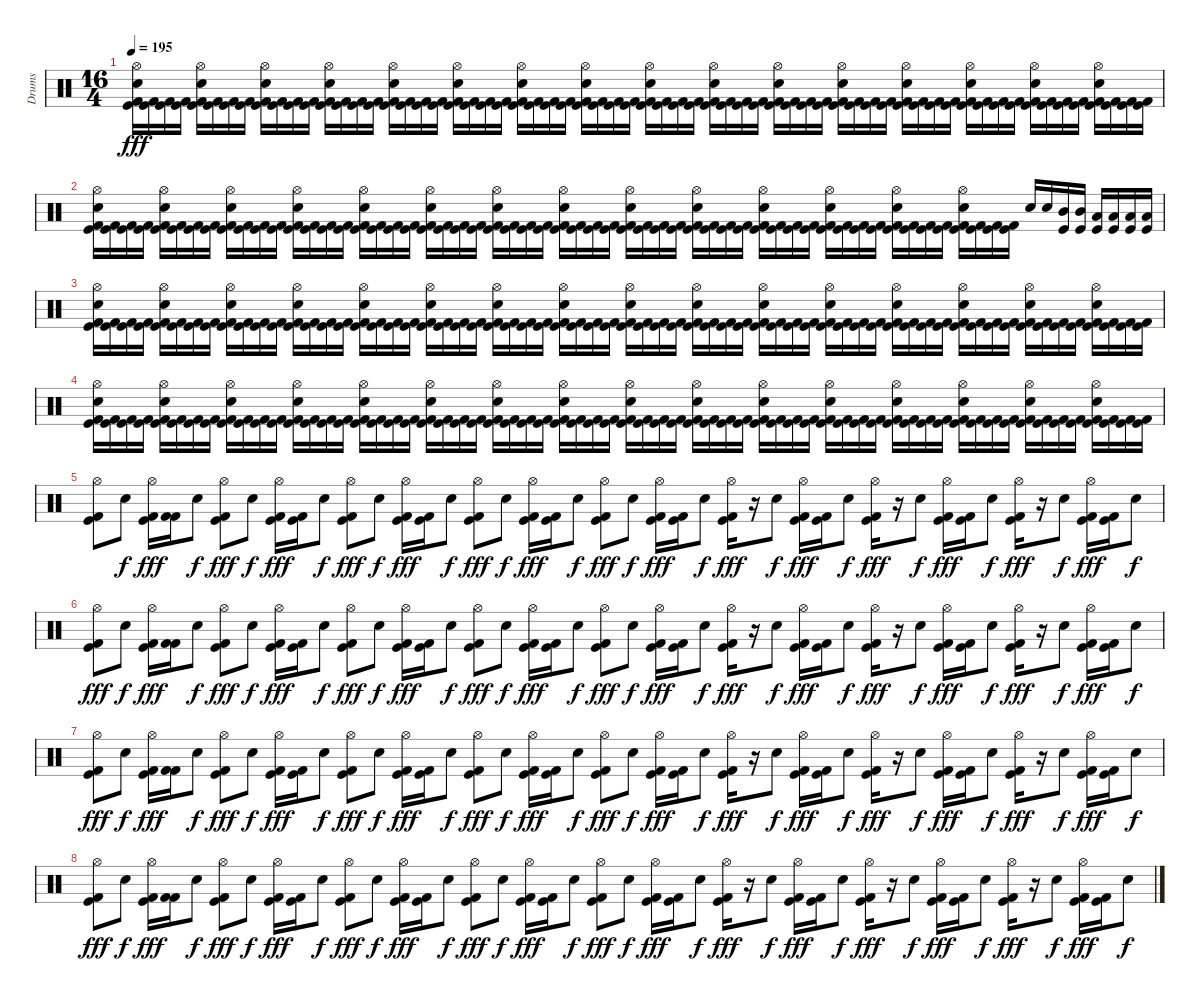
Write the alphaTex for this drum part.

\track ("Drums" "Drums") {instrument percussion}
\staff {score}
\articulation defaults
\ts (16 4)
\tempo 195
\clef neutral
\ks c
("Hi-Hat (open)" "Electric Snare (hit)" "Kick (hit)" "Kick (hit) 2").16{dy fff} ("Kick (hit)" "Kick (hit) 2").16 ("Kick (hit)" "Kick (hit) 2").16 ("Kick (hit)" "Kick (hit) 2").16 ("Hi-Hat (open)" "Electric Snare (hit)" "Kick (hit)" "Kick (hit) 2").16 ("Kick (hit)" "Kick (hit) 2").16 ("Kick (hit)" "Kick (hit) 2").16 ("Kick (hit)" "Kick (hit) 2").16 ("Hi-Hat (open)" "Electric Snare (hit)" "Kick (hit)" "Kick (hit) 2").16 ("Kick (hit)" "Kick (hit) 2").16 ("Kick (hit)" "Kick (hit) 2").16 ("Kick (hit)" "Kick (hit) 2").16 ("Hi-Hat (open)" "Electric Snare (hit)" "Kick (hit)" "Kick (hit) 2").16 ("Kick (hit)" "Kick (hit) 2").16 ("Kick (hit)" "Kick (hit) 2").16 ("Kick (hit)" "Kick (hit) 2").16 ("Hi-Hat (open)" "Electric Snare (hit)" "Kick (hit) 2" "Kick (hit)").16 ("Kick (hit) 2" "Kick (hit)").16 ("Kick (hit) 2" "Kick (hit)").16 ("Kick (hit) 2" "Kick (hit)").16 ("Hi-Hat (open)" "Electric Snare (hit)" "Kick (hit) 2" "Kick (hit)").16 ("Kick (hit) 2" "Kick (hit)").16 ("Kick (hit) 2" "Kick (hit)").16 ("Kick (hit) 2" "Kick (hit)").16 ("Hi-Hat (open)" "Electric Snare (hit)" "Kick (hit) 2" "Kick (hit)").16 ("Kick (hit) 2" "Kick (hit)").16 ("Kick (hit) 2" "Kick (hit)").16 ("Kick (hit) 2" "Kick (hit)").16 ("Hi-Hat (open)" "Electric Snare (hit)" "Kick (hit) 2" "Kick (hit)").16 ("Kick (hit) 2" "Kick (hit)").16 ("Kick (hit) 2" "Kick (hit)").16 ("Kick (hit) 2" "Kick (hit)").16 ("Electric Snare (hit)" "Hi-Hat (open)" "Kick (hit) 2" "Kick (hit)").16 ("Kick (hit) 2" "Kick (hit)").16 ("Kick (hit) 2" "Kick (hit)").16 ("Kick (hit) 2" "Kick (hit)").16 ("Hi-Hat (open)" "Electric Snare (hit)" "Kick (hit) 2" "Kick (hit)").16 ("Kick (hit) 2" "Kick (hit)").16 ("Kick (hit) 2" "Kick (hit)").16 ("Kick (hit) 2" "Kick (hit)").16 ("Hi-Hat (open)" "Electric Snare (hit)" "Kick (hit) 2" "Kick (hit)").16 ("Kick (hit) 2" "Kick (hit)").16 ("Kick (hit) 2" "Kick (hit)").16 ("Kick (hit) 2" "Kick (hit)").16 ("Hi-Hat (open)" "Electric Snare (hit)" "Kick (hit) 2" "Kick (hit)").16 ("Kick (hit) 2" "Kick (hit)").16 ("Kick (hit) 2" "Kick (hit)").16 ("Kick (hit) 2" "Kick (hit)").16 ("Hi-Hat (open)" "Electric Snare (hit)" "Kick (hit) 2" "Kick (hit)").16 ("Kick (hit) 2" "Kick (hit)").16 ("Kick (hit) 2" "Kick (hit)").16 ("Kick (hit) 2" "Kick (hit)").16 ("Hi-Hat (open)" "Electric Snare (hit)" "Kick (hit) 2" "Kick (hit)").16 ("Kick (hit) 2" "Kick (hit)").16 ("Kick (hit) 2" "Kick (hit)").16 ("Kick (hit) 2" "Kick (hit)").16 ("Hi-Hat (open)" "Electric Snare (hit)" "Kick (hit) 2" "Kick (hit)").16 ("Kick (hit) 2" "Kick (hit)").16 ("Kick (hit) 2" "Kick (hit)").16 ("Kick (hit) 2" "Kick (hit)").16 ("Hi-Hat (open)" "Electric Snare (hit)" "Kick (hit) 2" "Kick (hit)").16 ("Kick (hit) 2" "Kick (hit)").16 ("Kick (hit) 2" "Kick (hit)").16 ("Kick (hit) 2" "Kick (hit)").16 |
("Hi-Hat (open)" "Electric Snare (hit)" "Kick (hit)" "Kick (hit) 2").16 ("Kick (hit)" "Kick (hit) 2").16 ("Kick (hit)" "Kick (hit) 2").16 ("Kick (hit)" "Kick (hit) 2").16 ("Hi-Hat (open)" "Electric Snare (hit)" "Kick (hit)" "Kick (hit) 2").16 ("Kick (hit)" "Kick (hit) 2").16 ("Kick (hit)" "Kick (hit) 2").16 ("Kick (hit)" "Kick (hit) 2").16 ("Hi-Hat (open)" "Electric Snare (hit)" "Kick (hit)" "Kick (hit) 2").16 ("Kick (hit)" "Kick (hit) 2").16 ("Kick (hit)" "Kick (hit) 2").16 ("Kick (hit)" "Kick (hit) 2").16 ("Hi-Hat (open)" "Electric Snare (hit)" "Kick (hit)" "Kick (hit) 2").16 ("Kick (hit)" "Kick (hit) 2").16 ("Kick (hit)" "Kick (hit) 2").16 ("Kick (hit)" "Kick (hit) 2").16 ("Hi-Hat (open)" "Electric Snare (hit)" "Kick (hit) 2" "Kick (hit)").16 ("Kick (hit) 2" "Kick (hit)").16 ("Kick (hit) 2" "Kick (hit)").16 ("Kick (hit) 2" "Kick (hit)").16 ("Hi-Hat (open)" "Electric Snare (hit)" "Kick (hit) 2" "Kick (hit)").16 ("Kick (hit) 2" "Kick (hit)").16 ("Kick (hit) 2" "Kick (hit)").16 ("Kick (hit) 2" "Kick (hit)").16 ("Hi-Hat (open)" "Electric Snare (hit)" "Kick (hit) 2" "Kick (hit)").16 ("Kick (hit) 2" "Kick (hit)").16 ("Kick (hit) 2" "Kick (hit)").16 ("Kick (hit) 2" "Kick (hit)").16 ("Hi-Hat (open)" "Electric Snare (hit)" "Kick (hit) 2" "Kick (hit)").16 ("Kick (hit) 2" "Kick (hit)").16 ("Kick (hit) 2" "Kick (hit)").16 ("Kick (hit) 2" "Kick (hit)").16 ("Electric Snare (hit)" "Hi-Hat (open)" "Kick (hit) 2" "Kick (hit)").16 ("Kick (hit) 2" "Kick (hit)").16 ("Kick (hit) 2" "Kick (hit)").16 ("Kick (hit) 2" "Kick (hit)").16 ("Hi-Hat (open)" "Electric Snare (hit)" "Kick (hit) 2" "Kick (hit)").16 ("Kick (hit) 2" "Kick (hit)").16 ("Kick (hit) 2" "Kick (hit)").16 ("Kick (hit) 2" "Kick (hit)").16 ("Hi-Hat (open)" "Electric Snare (hit)" "Kick (hit) 2" "Kick (hit)").16 ("Kick (hit) 2" "Kick (hit)").16 ("Kick (hit) 2" "Kick (hit)").16 ("Kick (hit) 2" "Kick (hit)").16 ("Hi-Hat (open)" "Electric Snare (hit)" "Kick (hit) 2" "Kick (hit)").16 ("Kick (hit) 2" "Kick (hit)").16 ("Kick (hit) 2" "Kick (hit)").16 ("Kick (hit) 2" "Kick (hit)").16 ("Hi-Hat (open)" "Electric Snare (hit)" "Kick (hit) 2" "Kick (hit)").16 ("Kick (hit) 2" "Kick (hit)").16 ("Kick (hit) 2" "Kick (hit)").16 ("Kick (hit) 2" "Kick (hit)").16 ("Hi-Hat (open)" "Electric Snare (hit)" "Kick (hit) 2" "Kick (hit)").16 ("Kick (hit) 2" "Kick (hit)").16 ("Kick (hit) 2" "Kick (hit)").16 ("Kick (hit) 2" "Kick (hit)").16 "Electric Snare (hit)".16 "Electric Snare (hit)".16 ("Kick (hit)" "Mid Tom (hit)").16 ("Kick (hit)" "Mid Tom (hit)").16 ("Kick (hit)" "Low Tom (hit)").16 ("Kick (hit)" "Low Tom (hit)").16 ("Kick (hit)" "Low Floor Tom (hit)").16 ("Kick (hit)" "Low Floor Tom (hit)").16 |
("Hi-Hat (open)" "Electric Snare (hit)" "Kick (hit)" "Kick (hit) 2").16 ("Kick (hit)" "Kick (hit) 2").16 ("Kick (hit)" "Kick (hit) 2").16 ("Kick (hit)" "Kick (hit) 2").16 ("Hi-Hat (open)" "Electric Snare (hit)" "Kick (hit)" "Kick (hit) 2").16 ("Kick (hit)" "Kick (hit) 2").16 ("Kick (hit)" "Kick (hit) 2").16 ("Kick (hit)" "Kick (hit) 2").16 ("Hi-Hat (open)" "Electric Snare (hit)" "Kick (hit)" "Kick (hit) 2").16 ("Kick (hit)" "Kick (hit) 2").16 ("Kick (hit)" "Kick (hit) 2").16 ("Kick (hit)" "Kick (hit) 2").16 ("Hi-Hat (open)" "Electric Snare (hit)" "Kick (hit)" "Kick (hit) 2").16 ("Kick (hit)" "Kick (hit) 2").16 ("Kick (hit)" "Kick (hit) 2").16 ("Kick (hit)" "Kick (hit) 2").16 ("Hi-Hat (open)" "Electric Snare (hit)" "Kick (hit) 2" "Kick (hit)").16 ("Kick (hit) 2" "Kick (hit)").16 ("Kick (hit) 2" "Kick (hit)").16 ("Kick (hit) 2" "Kick (hit)").16 ("Hi-Hat (open)" "Electric Snare (hit)" "Kick (hit) 2" "Kick (hit)").16 ("Kick (hit) 2" "Kick (hit)").16 ("Kick (hit) 2" "Kick (hit)").16 ("Kick (hit) 2" "Kick (hit)").16 ("Hi-Hat (open)" "Electric Snare (hit)" "Kick (hit) 2" "Kick (hit)").16 ("Kick (hit) 2" "Kick (hit)").16 ("Kick (hit) 2" "Kick (hit)").16 ("Kick (hit) 2" "Kick (hit)").16 ("Hi-Hat (open)" "Electric Snare (hit)" "Kick (hit) 2" "Kick (hit)").16 ("Kick (hit) 2" "Kick (hit)").16 ("Kick (hit) 2" "Kick (hit)").16 ("Kick (hit) 2" "Kick (hit)").16 ("Electric Snare (hit)" "Hi-Hat (open)" "Kick (hit) 2" "Kick (hit)").16 ("Kick (hit) 2" "Kick (hit)").16 ("Kick (hit) 2" "Kick (hit)").16 ("Kick (hit) 2" "Kick (hit)").16 ("Hi-Hat (open)" "Electric Snare (hit)" "Kick (hit) 2" "Kick (hit)").16 ("Kick (hit) 2" "Kick (hit)").16 ("Kick (hit) 2" "Kick (hit)").16 ("Kick (hit) 2" "Kick (hit)").16 ("Hi-Hat (open)" "Electric Snare (hit)" "Kick (hit) 2" "Kick (hit)").16 ("Kick (hit) 2" "Kick (hit)").16 ("Kick (hit) 2" "Kick (hit)").16 ("Kick (hit) 2" "Kick (hit)").16 ("Hi-Hat (open)" "Electric Snare (hit)" "Kick (hit) 2" "Kick (hit)").16 ("Kick (hit) 2" "Kick (hit)").16 ("Kick (hit) 2" "Kick (hit)").16 ("Kick (hit) 2" "Kick (hit)").16 ("Hi-Hat (open)" "Electric Snare (hit)" "Kick (hit) 2" "Kick (hit)").16 ("Kick (hit) 2" "Kick (hit)").16 ("Kick (hit) 2" "Kick (hit)").16 ("Kick (hit) 2" "Kick (hit)").16 ("Hi-Hat (open)" "Electric Snare (hit)" "Kick (hit) 2" "Kick (hit)").16 ("Kick (hit) 2" "Kick (hit)").16 ("Kick (hit) 2" "Kick (hit)").16 ("Kick (hit) 2" "Kick (hit)").16 ("Hi-Hat (open)" "Electric Snare (hit)" "Kick (hit) 2" "Kick (hit)").16 ("Kick (hit) 2" "Kick (hit)").16 ("Kick (hit) 2" "Kick (hit)").16 ("Kick (hit) 2" "Kick (hit)").16 ("Hi-Hat (open)" "Electric Snare (hit)" "Kick (hit) 2" "Kick (hit)").16 ("Kick (hit) 2" "Kick (hit)").16 ("Kick (hit) 2" "Kick (hit)").16 ("Kick (hit) 2" "Kick (hit)").16 |
("Hi-Hat (open)" "Electric Snare (hit)" "Kick (hit)" "Kick (hit) 2").16 ("Kick (hit)" "Kick (hit) 2").16 ("Kick (hit)" "Kick (hit) 2").16 ("Kick (hit)" "Kick (hit) 2").16 ("Hi-Hat (open)" "Electric Snare (hit)" "Kick (hit)" "Kick (hit) 2").16 ("Kick (hit)" "Kick (hit) 2").16 ("Kick (hit)" "Kick (hit) 2").16 ("Kick (hit)" "Kick (hit) 2").16 ("Hi-Hat (open)" "Electric Snare (hit)" "Kick (hit)" "Kick (hit) 2").16 ("Kick (hit)" "Kick (hit) 2").16 ("Kick (hit)" "Kick (hit) 2").16 ("Kick (hit)" "Kick (hit) 2").16 ("Hi-Hat (open)" "Electric Snare (hit)" "Kick (hit)" "Kick (hit) 2").16 ("Kick (hit)" "Kick (hit) 2").16 ("Kick (hit)" "Kick (hit) 2").16 ("Kick (hit)" "Kick (hit) 2").16 ("Hi-Hat (open)" "Electric Snare (hit)" "Kick (hit) 2" "Kick (hit)").16 ("Kick (hit) 2" "Kick (hit)").16 ("Kick (hit) 2" "Kick (hit)").16 ("Kick (hit) 2" "Kick (hit)").16 ("Hi-Hat (open)" "Electric Snare (hit)" "Kick (hit) 2" "Kick (hit)").16 ("Kick (hit) 2" "Kick (hit)").16 ("Kick (hit) 2" "Kick (hit)").16 ("Kick (hit) 2" "Kick (hit)").16 ("Hi-Hat (open)" "Electric Snare (hit)" "Kick (hit) 2" "Kick (hit)").16 ("Kick (hit) 2" "Kick (hit)").16 ("Kick (hit) 2" "Kick (hit)").16 ("Kick (hit) 2" "Kick (hit)").16 ("Hi-Hat (open)" "Electric Snare (hit)" "Kick (hit) 2" "Kick (hit)").16 ("Kick (hit) 2" "Kick (hit)").16 ("Kick (hit) 2" "Kick (hit)").16 ("Kick (hit) 2" "Kick (hit)").16 ("Electric Snare (hit)" "Hi-Hat (open)" "Kick (hit) 2" "Kick (hit)").16 ("Kick (hit) 2" "Kick (hit)").16 ("Kick (hit) 2" "Kick (hit)").16 ("Kick (hit) 2" "Kick (hit)").16 ("Hi-Hat (open)" "Electric Snare (hit)" "Kick (hit) 2" "Kick (hit)").16 ("Kick (hit) 2" "Kick (hit)").16 ("Kick (hit) 2" "Kick (hit)").16 ("Kick (hit) 2" "Kick (hit)").16 ("Hi-Hat (open)" "Electric Snare (hit)" "Kick (hit) 2" "Kick (hit)").16 ("Kick (hit) 2" "Kick (hit)").16 ("Kick (hit) 2" "Kick (hit)").16 ("Kick (hit) 2" "Kick (hit)").16 ("Hi-Hat (open)" "Electric Snare (hit)" "Kick (hit) 2" "Kick (hit)").16 ("Kick (hit) 2" "Kick (hit)").16 ("Kick (hit) 2" "Kick (hit)").16 ("Kick (hit) 2" "Kick (hit)").16 ("Hi-Hat (open)" "Electric Snare (hit)" "Kick (hit) 2" "Kick (hit)").16 ("Kick (hit) 2" "Kick (hit)").16 ("Kick (hit) 2" "Kick (hit)").16 ("Kick (hit) 2" "Kick (hit)").16 ("Hi-Hat (open)" "Electric Snare (hit)" "Kick (hit) 2" "Kick (hit)").16 ("Kick (hit) 2" "Kick (hit)").16 ("Kick (hit) 2" "Kick (hit)").16 ("Kick (hit) 2" "Kick (hit)").16 ("Hi-Hat (open)" "Electric Snare (hit)" "Kick (hit) 2" "Kick (hit)").16 ("Kick (hit) 2" "Kick (hit)").16 ("Kick (hit) 2" "Kick (hit)").16 ("Kick (hit) 2" "Kick (hit)").16 ("Hi-Hat (open)" "Electric Snare (hit)" "Kick (hit) 2" "Kick (hit)").16 ("Kick (hit) 2" "Kick (hit)").16 ("Kick (hit) 2" "Kick (hit)").16 ("Kick (hit) 2" "Kick (hit)").16 |
("Hi-Hat (open)" "Kick (hit)" "Kick (hit) 2").8 "Electric Snare (hit)".8{dy f} ("Hi-Hat (open)" "Kick (hit)" "Kick (hit) 2").16{dy fff} ("Kick (hit) 2" "Kick (hit) 2").16 "Electric Snare (hit)".8{dy f} ("Hi-Hat (open)" "Kick (hit)" "Kick (hit) 2").8{dy fff} "Electric Snare (hit)".8{dy f} ("Hi-Hat (open)" "Kick (hit)" "Kick (hit) 2").16{dy fff} ("Kick (hit) 2" "Kick (hit)").16 "Electric Snare (hit)".8{dy f} ("Hi-Hat (open)" "Kick (hit)" "Kick (hit) 2").8{dy fff} "Electric Snare (hit)".8{dy f} ("Hi-Hat (open)" "Kick (hit)" "Kick (hit) 2").16{dy fff} ("Kick (hit) 2" "Kick (hit)").16 "Electric Snare (hit)".8{dy f} ("Hi-Hat (open)" "Kick (hit)" "Kick (hit) 2").8{dy fff} "Electric Snare (hit)".8{dy f} ("Hi-Hat (open)" "Kick (hit)" "Kick (hit) 2").16{dy fff} ("Kick (hit) 2" "Kick (hit)").16 "Electric Snare (hit)".8{dy f} ("Hi-Hat (open)" "Kick (hit)" "Kick (hit) 2").8{dy fff} "Electric Snare (hit)".8{dy f} ("Hi-Hat (open)" "Kick (hit)" "Kick (hit) 2").16{dy fff} ("Kick (hit) 2" "Kick (hit)").16 "Electric Snare (hit)".8{dy f} ("Hi-Hat (open)" "Kick (hit)" "Kick (hit) 2").16{dy fff} r.16 "Electric Snare (hit)".8{dy f} ("Hi-Hat (open)" "Kick (hit)" "Kick (hit) 2").16{dy fff} ("Kick (hit) 2" "Kick (hit)").16 "Electric Snare (hit)".8{dy f} ("Hi-Hat (open)" "Kick (hit)" "Kick (hit) 2").16{dy fff} r.16 "Electric Snare (hit)".8{dy f} ("Hi-Hat (open)" "Kick (hit) 2" "Kick (hit)").16{dy fff} ("Kick (hit) 2" "Kick (hit)").16 "Electric Snare (hit)".8{dy f} ("Hi-Hat (open)" "Kick (hit)" "Kick (hit) 2").16{dy fff} r.16 "Electric Snare (hit)".8{dy f} ("Hi-Hat (open)" "Kick (hit) 2" "Kick (hit)").16{dy fff} ("Kick (hit) 2" "Kick (hit)").16 "Electric Snare (hit)".8{dy f} |
("Hi-Hat (open)" "Kick (hit)" "Kick (hit) 2").8{dy fff} "Electric Snare (hit)".8{dy f} ("Hi-Hat (open)" "Kick (hit)" "Kick (hit) 2").16{dy fff} ("Kick (hit) 2" "Kick (hit) 2").16 "Electric Snare (hit)".8{dy f} ("Hi-Hat (open)" "Kick (hit)" "Kick (hit) 2").8{dy fff} "Electric Snare (hit)".8{dy f} ("Hi-Hat (open)" "Kick (hit)" "Kick (hit) 2").16{dy fff} ("Kick (hit) 2" "Kick (hit)").16 "Electric Snare (hit)".8{dy f} ("Hi-Hat (open)" "Kick (hit)" "Kick (hit) 2").8{dy fff} "Electric Snare (hit)".8{dy f} ("Hi-Hat (open)" "Kick (hit)" "Kick (hit) 2").16{dy fff} ("Kick (hit) 2" "Kick (hit)").16 "Electric Snare (hit)".8{dy f} ("Hi-Hat (open)" "Kick (hit)" "Kick (hit) 2").8{dy fff} "Electric Snare (hit)".8{dy f} ("Hi-Hat (open)" "Kick (hit)" "Kick (hit) 2").16{dy fff} ("Kick (hit) 2" "Kick (hit)").16 "Electric Snare (hit)".8{dy f} ("Hi-Hat (open)" "Kick (hit)" "Kick (hit) 2").8{dy fff} "Electric Snare (hit)".8{dy f} ("Hi-Hat (open)" "Kick (hit)" "Kick (hit) 2").16{dy fff} ("Kick (hit) 2" "Kick (hit)").16 "Electric Snare (hit)".8{dy f} ("Hi-Hat (open)" "Kick (hit)" "Kick (hit) 2").16{dy fff} r.16 "Electric Snare (hit)".8{dy f} ("Hi-Hat (open)" "Kick (hit)" "Kick (hit) 2").16{dy fff} ("Kick (hit) 2" "Kick (hit)").16 "Electric Snare (hit)".8{dy f} ("Hi-Hat (open)" "Kick (hit)" "Kick (hit) 2").16{dy fff} r.16 "Electric Snare (hit)".8{dy f} ("Hi-Hat (open)" "Kick (hit) 2" "Kick (hit)").16{dy fff} ("Kick (hit) 2" "Kick (hit)").16 "Electric Snare (hit)".8{dy f} ("Hi-Hat (open)" "Kick (hit)" "Kick (hit) 2").16{dy fff} r.16 "Electric Snare (hit)".8{dy f} ("Hi-Hat (open)" "Kick (hit) 2" "Kick (hit)").16{dy fff} ("Kick (hit) 2" "Kick (hit)").16 "Electric Snare (hit)".8{dy f} |
("Hi-Hat (open)" "Kick (hit)" "Kick (hit) 2").8{dy fff} "Electric Snare (hit)".8{dy f} ("Hi-Hat (open)" "Kick (hit)" "Kick (hit) 2").16{dy fff} ("Kick (hit) 2" "Kick (hit) 2").16 "Electric Snare (hit)".8{dy f} ("Hi-Hat (open)" "Kick (hit)" "Kick (hit) 2").8{dy fff} "Electric Snare (hit)".8{dy f} ("Hi-Hat (open)" "Kick (hit)" "Kick (hit) 2").16{dy fff} ("Kick (hit) 2" "Kick (hit)").16 "Electric Snare (hit)".8{dy f} ("Hi-Hat (open)" "Kick (hit)" "Kick (hit) 2").8{dy fff} "Electric Snare (hit)".8{dy f} ("Hi-Hat (open)" "Kick (hit)" "Kick (hit) 2").16{dy fff} ("Kick (hit) 2" "Kick (hit)").16 "Electric Snare (hit)".8{dy f} ("Hi-Hat (open)" "Kick (hit)" "Kick (hit) 2").8{dy fff} "Electric Snare (hit)".8{dy f} ("Hi-Hat (open)" "Kick (hit)" "Kick (hit) 2").16{dy fff} ("Kick (hit) 2" "Kick (hit)").16 "Electric Snare (hit)".8{dy f} ("Hi-Hat (open)" "Kick (hit)" "Kick (hit) 2").8{dy fff} "Electric Snare (hit)".8{dy f} ("Hi-Hat (open)" "Kick (hit)" "Kick (hit) 2").16{dy fff} ("Kick (hit) 2" "Kick (hit)").16 "Electric Snare (hit)".8{dy f} ("Hi-Hat (open)" "Kick (hit)" "Kick (hit) 2").16{dy fff} r.16 "Electric Snare (hit)".8{dy f} ("Hi-Hat (open)" "Kick (hit)" "Kick (hit) 2").16{dy fff} ("Kick (hit) 2" "Kick (hit)").16 "Electric Snare (hit)".8{dy f} ("Hi-Hat (open)" "Kick (hit)" "Kick (hit) 2").16{dy fff} r.16 "Electric Snare (hit)".8{dy f} ("Hi-Hat (open)" "Kick (hit) 2" "Kick (hit)").16{dy fff} ("Kick (hit) 2" "Kick (hit)").16 "Electric Snare (hit)".8{dy f} ("Hi-Hat (open)" "Kick (hit)" "Kick (hit) 2").16{dy fff} r.16 "Electric Snare (hit)".8{dy f} ("Hi-Hat (open)" "Kick (hit) 2" "Kick (hit)").16{dy fff} ("Kick (hit) 2" "Kick (hit)").16 "Electric Snare (hit)".8{dy f} |
("Hi-Hat (open)" "Kick (hit)" "Kick (hit) 2").8{dy fff} "Electric Snare (hit)".8{dy f} ("Hi-Hat (open)" "Kick (hit)" "Kick (hit) 2").16{dy fff} ("Kick (hit) 2" "Kick (hit) 2").16 "Electric Snare (hit)".8{dy f} ("Hi-Hat (open)" "Kick (hit)" "Kick (hit) 2").8{dy fff} "Electric Snare (hit)".8{dy f} ("Hi-Hat (open)" "Kick (hit)" "Kick (hit) 2").16{dy fff} ("Kick (hit) 2" "Kick (hit)").16 "Electric Snare (hit)".8{dy f} ("Hi-Hat (open)" "Kick (hit)" "Kick (hit) 2").8{dy fff} "Electric Snare (hit)".8{dy f} ("Hi-Hat (open)" "Kick (hit)" "Kick (hit) 2").16{dy fff} ("Kick (hit) 2" "Kick (hit)").16 "Electric Snare (hit)".8{dy f} ("Hi-Hat (open)" "Kick (hit)" "Kick (hit) 2").8{dy fff} "Electric Snare (hit)".8{dy f} ("Hi-Hat (open)" "Kick (hit)" "Kick (hit) 2").16{dy fff} ("Kick (hit) 2" "Kick (hit)").16 "Electric Snare (hit)".8{dy f} ("Hi-Hat (open)" "Kick (hit)" "Kick (hit) 2").8{dy fff} "Electric Snare (hit)".8{dy f} ("Hi-Hat (open)" "Kick (hit)" "Kick (hit) 2").16{dy fff} ("Kick (hit) 2" "Kick (hit)").16 "Electric Snare (hit)".8{dy f} ("Hi-Hat (open)" "Kick (hit)" "Kick (hit) 2").16{dy fff} r.16 "Electric Snare (hit)".8{dy f} ("Hi-Hat (open)" "Kick (hit)" "Kick (hit) 2").16{dy fff} ("Kick (hit) 2" "Kick (hit)").16 "Electric Snare (hit)".8{dy f} ("Hi-Hat (open)" "Kick (hit)" "Kick (hit) 2").16{dy fff} r.16 "Electric Snare (hit)".8{dy f} ("Hi-Hat (open)" "Kick (hit) 2" "Kick (hit)").16{dy fff} ("Kick (hit) 2" "Kick (hit)").16 "Electric Snare (hit)".8{dy f} ("Hi-Hat (open)" "Kick (hit)" "Kick (hit) 2").16{dy fff} r.16 "Electric Snare (hit)".8{dy f} ("Hi-Hat (open)" "Kick (hit) 2" "Kick (hit)").16{dy fff} ("Kick (hit) 2" "Kick (hit)").16 "Electric Snare (hit)".8{dy f}
